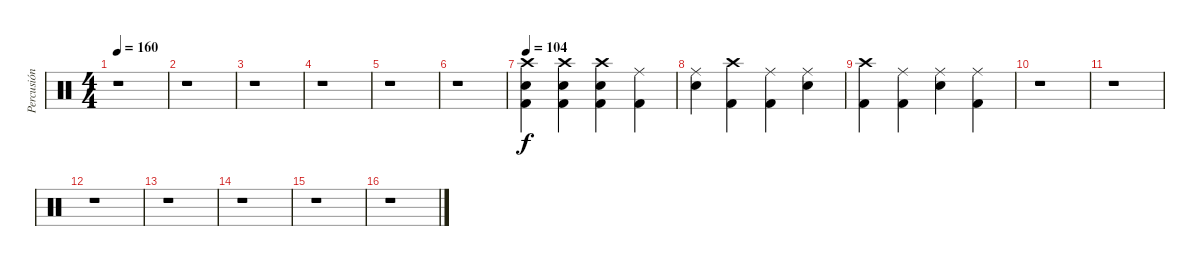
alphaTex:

\track ("Percusión" "Percusión") {instrument percussion}
\staff {score}
\articulation defaults
\ts (4 4)
\tempo 160
\clef neutral
\ks c
r.1{dy f} |
r.1 |
r.1 |
r.1 |
r.1 |
r.1 |
\tempo 104
("Crash high (hit)" "Snare (hit) 2" "Kick (hit) 2").4 ("Crash high (hit)" "Snare (hit) 2" "Kick (hit) 2").4 ("Crash high (hit)" "Snare (hit) 2" "Kick (hit) 2").4 ("Ride (middle)" "Kick (hit) 2").4 |
("Ride (middle)" "Snare (hit) 2").4 ("Crash high (hit)" "Kick (hit) 2").4 ("Ride (middle)" "Kick (hit) 2").4 ("Ride (middle)" "Snare (hit) 2").4 |
("Crash high (hit)" "Kick (hit) 2").4 ("Ride (middle)" "Kick (hit) 2").4 ("Ride (middle)" "Snare (hit) 2").4 ("Ride (middle)" "Kick (hit) 2").4 |
r.1 |
r.1 |
r.1 |
r.1 |
r.1 |
r.1 |
r.1
